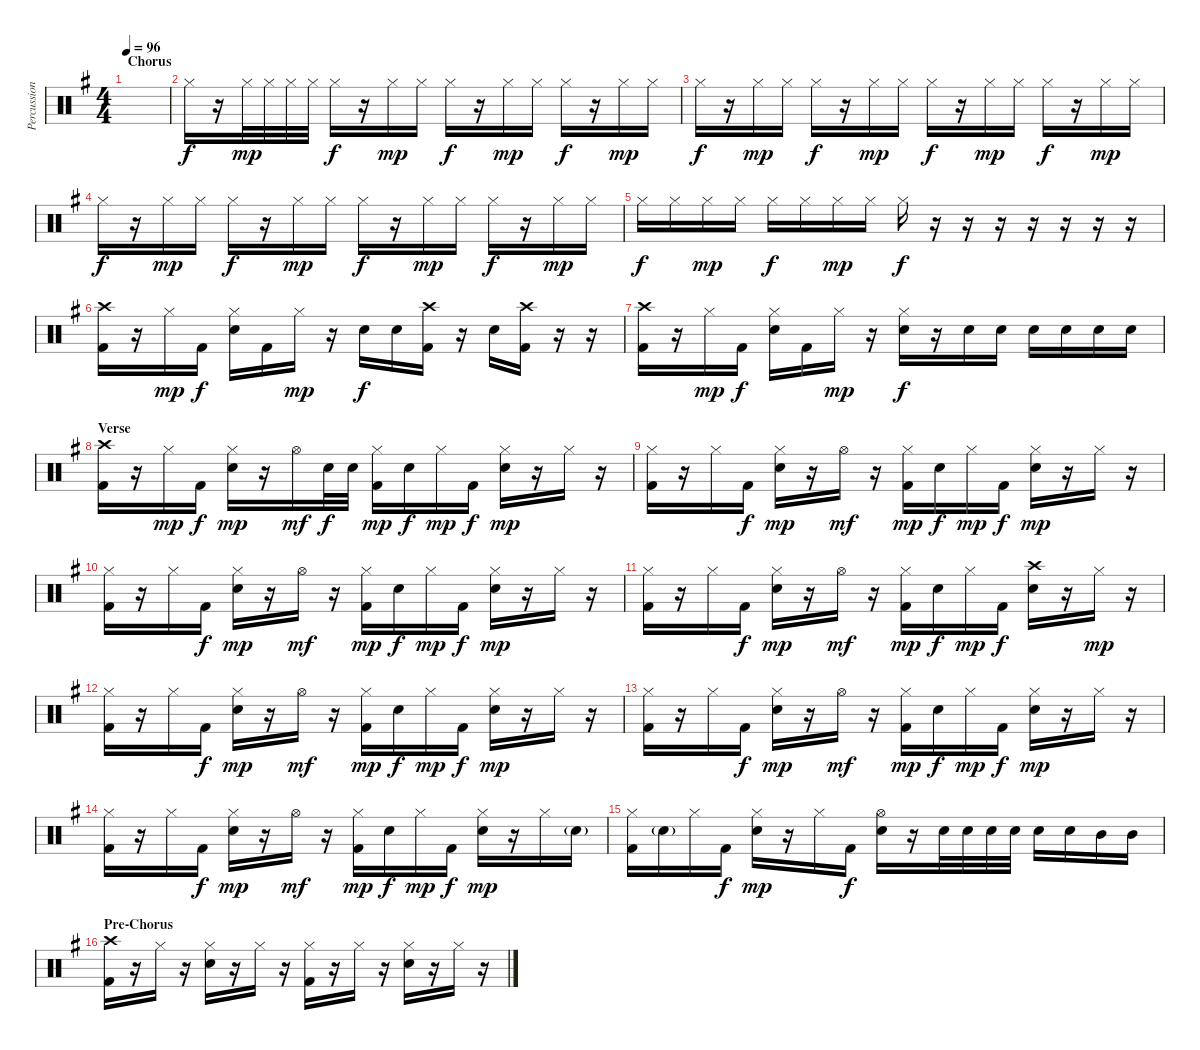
\track ("Percussion" "Percussion") {instrument percussion}
\staff {score}
\articulation defaults
\ts (4 4)
\section ("" "Chorus")
\tempo 96
\clef neutral
\ks g
|
"Hi-Hat (closed)".16 r.16 "Hi-Hat (closed)".32{dy mp} "Hi-Hat (closed)".32 "Hi-Hat (closed)".32 "Hi-Hat (closed)".32 "Hi-Hat (closed)".16{dy f} r.16 "Hi-Hat (closed)".16{dy mp} "Hi-Hat (closed)".16 "Hi-Hat (closed)".16{dy f} r.16 "Hi-Hat (closed)".16{dy mp} "Hi-Hat (closed)".16 "Hi-Hat (closed)".16{dy f} r.16 "Hi-Hat (closed)".16{dy mp} "Hi-Hat (closed)".16 |
"Hi-Hat (closed)".16{dy f} r.16 "Hi-Hat (closed)".16{dy mp} "Hi-Hat (closed)".16 "Hi-Hat (closed)".16{dy f} r.16 "Hi-Hat (closed)".16{dy mp} "Hi-Hat (closed)".16 "Hi-Hat (closed)".16{dy f} r.16 "Hi-Hat (closed)".16{dy mp} "Hi-Hat (closed)".16 "Hi-Hat (closed)".16{dy f} r.16 "Hi-Hat (closed)".16{dy mp} "Hi-Hat (closed)".16 |
"Hi-Hat (closed)".16{dy f} r.16 "Hi-Hat (closed)".16{dy mp} "Hi-Hat (closed)".16 "Hi-Hat (closed)".16{dy f} r.16 "Hi-Hat (closed)".16{dy mp} "Hi-Hat (closed)".16 "Hi-Hat (closed)".16{dy f} r.16 "Hi-Hat (closed)".16{dy mp} "Hi-Hat (closed)".16 "Hi-Hat (closed)".16{dy f} r.16 "Hi-Hat (closed)".16{dy mp} "Hi-Hat (closed)".16 |
"Hi-Hat (closed)".16{dy f} "Hi-Hat (closed)".16 "Hi-Hat (closed)".16{dy mp} "Hi-Hat (closed)".16 "Hi-Hat (closed)".16{dy f} "Hi-Hat (closed)".16 "Hi-Hat (closed)".16{dy mp} "Hi-Hat (closed)".16 "Hi-Hat (closed)".16{dy f} r.16 r.16 r.16 r.16 r.16 r.16 r.16 |
("Crash high (hit)" "Kick (hit) 2").16 r.16 "Hi-Hat (closed)".16{dy mp} "Kick (hit) 2".16{dy f} ("Hi-Hat (closed)" "Snare (hit) 2").16 "Kick (hit) 2".16 "Hi-Hat (closed)".16{dy mp} r.16 "Snare (hit) 2".16{dy f} "Snare (hit) 2".16 ("Crash high (hit)" "Kick (hit) 2").16 r.16 "Snare (hit) 2".16 ("Crash high (hit)" "Kick (hit) 2").16 r.16 r.16 |
("Crash high (hit)" "Kick (hit) 2").16 r.16 "Hi-Hat (closed)".16{dy mp} "Kick (hit) 2".16{dy f} ("Hi-Hat (closed)" "Snare (hit) 2").16 "Kick (hit) 2".16 "Hi-Hat (closed)".16{dy mp} r.16 ("Hi-Hat (closed)" "Snare (hit) 2").16{dy f} r.16 "Snare (hit) 2".16 "Snare (hit) 2".16 "Snare (hit) 2".16 "Snare (hit) 2".16 "Snare (hit) 2".16 "Snare (hit) 2".16 |
\section ("" "Verse")
("Crash high (hit)" "Kick (hit) 2").16 r.16 "Hi-Hat (closed)".16{dy mp} "Kick (hit) 2".16{dy f} ("Hi-Hat (closed)" "Snare (hit) 2").16{dy mp} r.16 "Hi-Hat (open)".16{dy mf} "Snare (hit) 2".32{dy f} "Snare (hit) 2".32 ("Hi-Hat (closed)" "Kick (hit) 2").16{dy mp} "Snare (hit) 2".16{dy f} "Hi-Hat (closed)".16{dy mp} "Kick (hit) 2".16{dy f} ("Hi-Hat (closed)" "Snare (hit) 2").16{dy mp} r.16 "Hi-Hat (closed)".16 r.16 |
("Hi-Hat (closed)" "Kick (hit) 2").16 r.16 "Hi-Hat (closed)".16 "Kick (hit) 2".16{dy f} ("Hi-Hat (closed)" "Snare (hit) 2").16{dy mp} r.16 "Hi-Hat (open)".16{dy mf} r.16 ("Hi-Hat (closed)" "Kick (hit) 2").16{dy mp} "Snare (hit) 2".16{dy f} "Hi-Hat (closed)".16{dy mp} "Kick (hit) 2".16{dy f} ("Hi-Hat (closed)" "Snare (hit) 2").16{dy mp} r.16 "Hi-Hat (closed)".16 r.16 |
("Hi-Hat (closed)" "Kick (hit) 2").16 r.16 "Hi-Hat (closed)".16 "Kick (hit) 2".16{dy f} ("Hi-Hat (closed)" "Snare (hit) 2").16{dy mp} r.16 "Hi-Hat (open)".16{dy mf} r.16 ("Hi-Hat (closed)" "Kick (hit) 2").16{dy mp} "Snare (hit) 2".16{dy f} "Hi-Hat (closed)".16{dy mp} "Kick (hit) 2".16{dy f} ("Hi-Hat (closed)" "Snare (hit) 2").16{dy mp} r.16 "Hi-Hat (closed)".16 r.16 |
("Hi-Hat (closed)" "Kick (hit) 2").16 r.16 "Hi-Hat (closed)".16 "Kick (hit) 2".16{dy f} ("Hi-Hat (closed)" "Snare (hit) 2").16{dy mp} r.16 "Hi-Hat (open)".16{dy mf} r.16 ("Hi-Hat (closed)" "Kick (hit) 2").16{dy mp} "Snare (hit) 2".16{dy f} "Hi-Hat (closed)".16{dy mp} "Kick (hit) 2".16{dy f} ("Crash high (hit)" "Snare (hit) 2").16 r.16 "Hi-Hat (closed)".16{dy mp} r.16 |
("Hi-Hat (closed)" "Kick (hit) 2").16 r.16 "Hi-Hat (closed)".16 "Kick (hit) 2".16{dy f} ("Hi-Hat (closed)" "Snare (hit) 2").16{dy mp} r.16 "Hi-Hat (open)".16{dy mf} r.16 ("Hi-Hat (closed)" "Kick (hit) 2").16{dy mp} "Snare (hit) 2".16{dy f} "Hi-Hat (closed)".16{dy mp} "Kick (hit) 2".16{dy f} ("Hi-Hat (closed)" "Snare (hit) 2").16{dy mp} r.16 "Hi-Hat (closed)".16 r.16 |
("Hi-Hat (closed)" "Kick (hit) 2").16 r.16 "Hi-Hat (closed)".16 "Kick (hit) 2".16{dy f} ("Hi-Hat (closed)" "Snare (hit) 2").16{dy mp} r.16 "Hi-Hat (open)".16{dy mf} r.16 ("Hi-Hat (closed)" "Kick (hit) 2").16{dy mp} "Snare (hit) 2".16{dy f} "Hi-Hat (closed)".16{dy mp} "Kick (hit) 2".16{dy f} ("Hi-Hat (closed)" "Snare (hit) 2").16{dy mp} r.16 "Hi-Hat (closed)".16 r.16 |
("Hi-Hat (closed)" "Kick (hit) 2").16 r.16 "Hi-Hat (closed)".16 "Kick (hit) 2".16{dy f} ("Hi-Hat (closed)" "Snare (hit) 2").16{dy mp} r.16 "Hi-Hat (open)".16{dy mf} r.16 ("Hi-Hat (closed)" "Kick (hit) 2").16{dy mp} "Snare (hit) 2".16{dy f} "Hi-Hat (closed)".16{dy mp} "Kick (hit) 2".16{dy f} ("Hi-Hat (closed)" "Snare (hit) 2").16{dy mp} r.16 "Hi-Hat (closed)".16 "Snare (hit) 2"{g}.16 |
("Hi-Hat (closed)" "Kick (hit) 2").16 "Snare (hit) 2"{g}.16 "Hi-Hat (closed)".16 "Kick (hit) 2".16{dy f} ("Hi-Hat (closed)" "Snare (hit) 2").16{dy mp} r.16 "Hi-Hat (closed)".16 "Kick (hit) 2".16{dy f} ("Hi-Hat (open)" "Snare (hit) 2").16 r.16 "Snare (hit) 2".32 "Snare (hit) 2".32 "Snare (hit) 2".32 "Snare (hit) 2".32 "Snare (hit) 2".16 "Snare (hit) 2".16 "Mid Tom (hit)".16 "Mid Tom (hit)".16 |
\section ("" "Pre-Chorus")
("Crash high (hit)" "Kick (hit) 2").16 r.16 "Hi-Hat (closed)".16 r.16 ("Hi-Hat (closed)" "Snare (hit) 2").16 r.16 "Hi-Hat (closed)".16 r.16 ("Hi-Hat (closed)" "Kick (hit) 2").16 r.16 "Hi-Hat (closed)".16 r.16 ("Hi-Hat (closed)" "Snare (hit) 2").16 r.16 "Hi-Hat (closed)".16 r.16
